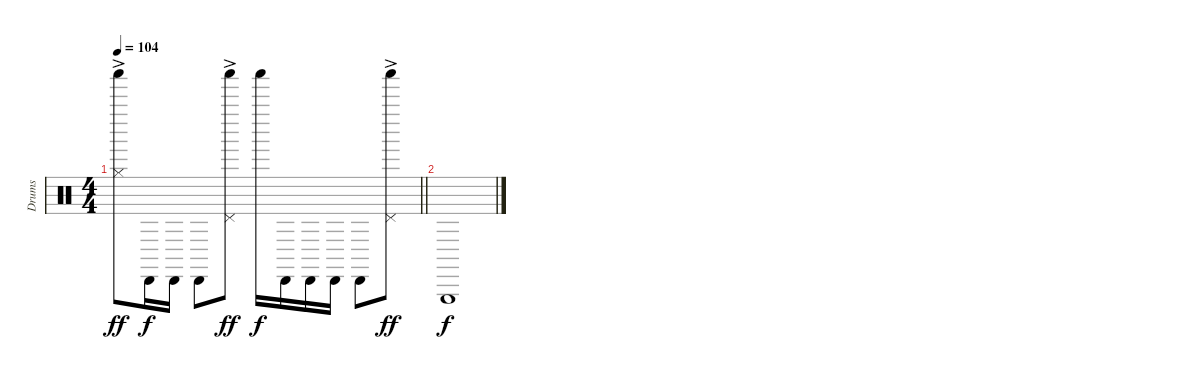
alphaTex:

\track ("Drums" "Drums") {instrument percussion}
\staff {score}
\articulation defaults
\ts (4 4)
\tempo 104
\clef neutral
\barLineRight lightlight
\ks c
("Shaker (hit)" "Hi-Hat (closed)"{ac}).8{dy ff} "Cabasa (hit)".16{dy f} "Cabasa (hit)".16 "Cabasa (hit)".8 ("Shaker (hit)" "Pedal Hi-Hat (hit)"{ac}).8{dy ff} "Shaker (hit)".16{dy f} "Cabasa (hit)".16 "Cabasa (hit)".16 "Cabasa (hit)".16 "Cabasa (hit)".8 ("Shaker (hit)" "Pedal Hi-Hat (hit)"{ac}).8{dy ff} |
"Triangle (hit)".1{dy f}
